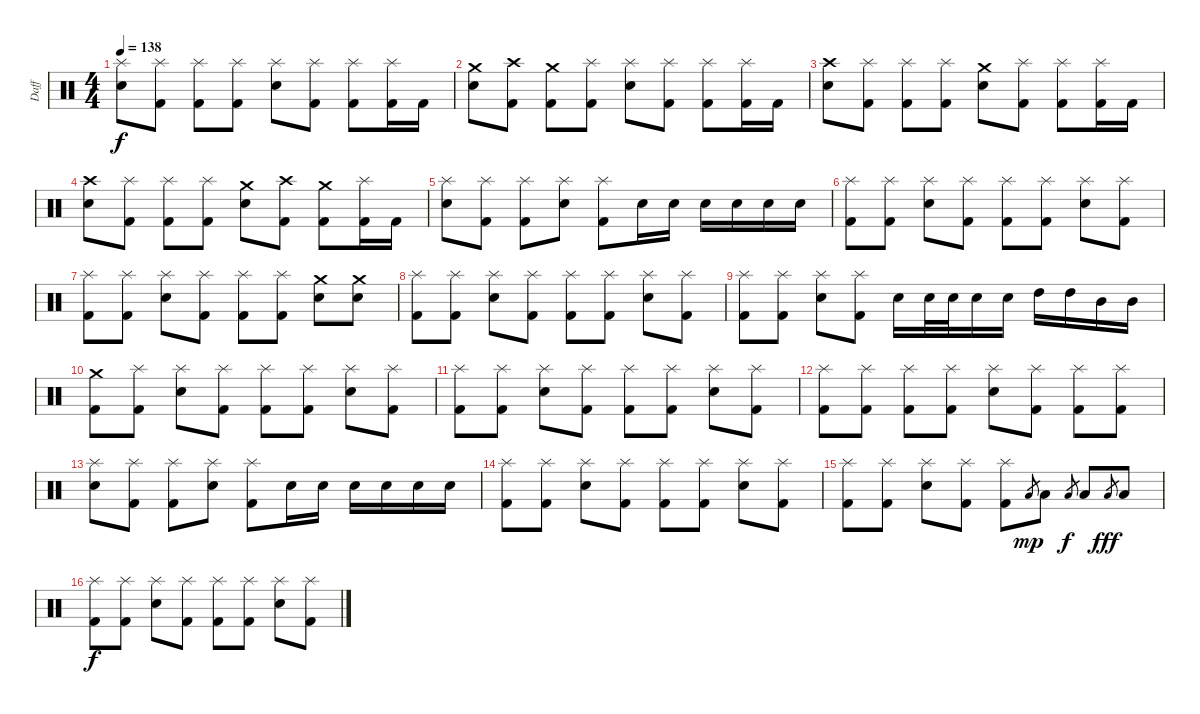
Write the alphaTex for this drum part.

\track ("Daff" "Daff") {instrument percussion}
\staff {score}
\articulation defaults
\ts (4 4)
\tempo 138
\clef neutral
\ks c
("Splash (hit)" "Electric Snare (hit)").8{dy f} ("Splash (hit)" "Kick (hit) 2").8 ("Splash (hit)" "Kick (hit) 2").8 ("Splash (hit)" "Kick (hit) 2").8 ("Splash (hit)" "Electric Snare (hit)").8 ("Splash (hit)" "Kick (hit) 2").8 ("Splash (hit)" "Kick (hit) 2").8 ("Splash (hit)" "Kick (hit) 2").16 "Kick (hit) 2".16 |
("Crash medium (hit)" "Electric Snare (hit)").8 ("Crash high (hit)" "Kick (hit) 2").8 ("Crash medium (hit)" "Kick (hit) 2").8 ("Splash (hit)" "Kick (hit) 2").8 ("Splash (hit)" "Electric Snare (hit)").8 ("Splash (hit)" "Kick (hit) 2").8 ("Splash (hit)" "Kick (hit) 2").8 ("Splash (hit)" "Kick (hit) 2").16 "Kick (hit) 2".16 |
("Crash high (hit)" "Electric Snare (hit)").8 ("Splash (hit)" "Kick (hit) 2").8 ("Splash (hit)" "Kick (hit) 2").8 ("Splash (hit)" "Kick (hit) 2").8 ("Crash medium (hit)" "Electric Snare (hit)").8 ("Splash (hit)" "Kick (hit) 2").8 ("Splash (hit)" "Kick (hit) 2").8 ("Splash (hit)" "Kick (hit) 2").16 "Kick (hit) 2".16 |
("Crash high (hit)" "Electric Snare (hit)").8 ("Splash (hit)" "Kick (hit) 2").8 ("Splash (hit)" "Kick (hit) 2").8 ("Splash (hit)" "Kick (hit) 2").8 ("Crash medium (hit)" "Electric Snare (hit)").8 ("Crash high (hit)" "Kick (hit) 2").8 ("Crash medium (hit)" "Kick (hit) 2").8 ("Splash (hit)" "Kick (hit) 2").16 "Kick (hit) 2".16 |
("Splash (hit)" "Electric Snare (hit)").8 ("Splash (hit)" "Kick (hit) 2").8 ("Splash (hit)" "Kick (hit) 2").8 ("Splash (hit)" "Electric Snare (hit)").8 ("Splash (hit)" "Kick (hit) 2").8 "Electric Snare (hit)".16 "Electric Snare (hit)".16 "Electric Snare (hit)".16 "Electric Snare (hit)".16 "Electric Snare (hit)".16 "Electric Snare (hit)".16 |
("Splash (hit)" "Kick (hit) 2").8 ("Splash (hit)" "Kick (hit) 2").8 ("Splash (hit)" "Electric Snare (hit)").8 ("Splash (hit)" "Kick (hit) 2").8 ("Splash (hit)" "Kick (hit) 2").8 ("Splash (hit)" "Kick (hit) 2").8 ("Splash (hit)" "Electric Snare (hit)").8 ("Splash (hit)" "Kick (hit) 2").8 |
("Splash (hit)" "Kick (hit) 2").8 ("Splash (hit)" "Kick (hit) 2").8 ("Splash (hit)" "Electric Snare (hit)").8 ("Splash (hit)" "Kick (hit) 2").8 ("Splash (hit)" "Kick (hit) 2").8 ("Splash (hit)" "Kick (hit) 2").8 ("Crash medium (hit)" "Electric Snare (hit)").8 ("Crash medium (hit)" "Electric Snare (hit)").8 |
("Splash (hit)" "Kick (hit) 2").8 ("Splash (hit)" "Kick (hit) 2").8 ("Splash (hit)" "Electric Snare (hit)").8 ("Splash (hit)" "Kick (hit) 2").8 ("Splash (hit)" "Kick (hit) 2").8 ("Splash (hit)" "Kick (hit) 2").8 ("Splash (hit)" "Electric Snare (hit)").8 ("Splash (hit)" "Kick (hit) 2").8 |
("Splash (hit)" "Kick (hit) 2").8 ("Splash (hit)" "Kick (hit) 2").8 ("Splash (hit)" "Electric Snare (hit)").8 ("Splash (hit)" "Kick (hit) 2").8 "Electric Snare (hit)".16 "Electric Snare (hit)".32 "Electric Snare (hit)".32 "Electric Snare (hit)".16 "Electric Snare (hit)".16 "High Tom (hit)".16 "High Tom (hit)".16 "Mid Tom (hit)".16 "Mid Tom (hit)".16 |
("Crash medium (hit)" "Kick (hit) 2").8 ("Splash (hit)" "Kick (hit) 2").8 ("Splash (hit)" "Electric Snare (hit)").8 ("Splash (hit)" "Kick (hit) 2").8 ("Splash (hit)" "Kick (hit) 2").8 ("Splash (hit)" "Kick (hit) 2").8 ("Splash (hit)" "Electric Snare (hit)").8 ("Splash (hit)" "Kick (hit) 2").8 |
("Splash (hit)" "Kick (hit) 2").8 ("Splash (hit)" "Kick (hit) 2").8 ("Splash (hit)" "Electric Snare (hit)").8 ("Splash (hit)" "Kick (hit) 2").8 ("Splash (hit)" "Kick (hit) 2").8 ("Splash (hit)" "Kick (hit) 2").8 ("Splash (hit)" "Electric Snare (hit)").8 ("Splash (hit)" "Kick (hit) 2").8 |
("Splash (hit)" "Kick (hit) 2").8 ("Splash (hit)" "Kick (hit) 2").8 ("Splash (hit)" "Kick (hit) 2").8 ("Splash (hit)" "Kick (hit) 2").8 ("Splash (hit)" "Electric Snare (hit)").8 ("Splash (hit)" "Kick (hit) 2").8 ("Splash (hit)" "Kick (hit) 2").8 ("Splash (hit)" "Kick (hit) 2").8 |
("Splash (hit)" "Electric Snare (hit)").8 ("Splash (hit)" "Kick (hit) 2").8 ("Splash (hit)" "Kick (hit) 2").8 ("Splash (hit)" "Electric Snare (hit)").8 ("Splash (hit)" "Kick (hit) 2").8 "Electric Snare (hit)".16 "Electric Snare (hit)".16 "Electric Snare (hit)".16 "Electric Snare (hit)".16 "Electric Snare (hit)".16 "Electric Snare (hit)".16 |
("Splash (hit)" "Kick (hit) 2").8 ("Splash (hit)" "Kick (hit) 2").8 ("Splash (hit)" "Electric Snare (hit)").8 ("Splash (hit)" "Kick (hit) 2").8 ("Splash (hit)" "Kick (hit) 2").8 ("Splash (hit)" "Kick (hit) 2").8 ("Splash (hit)" "Electric Snare (hit)").8 ("Splash (hit)" "Kick (hit) 2").8 |
("Splash (hit)" "Kick (hit) 2").8 ("Splash (hit)" "Kick (hit) 2").8 ("Splash (hit)" "Electric Snare (hit)").8 ("Splash (hit)" "Kick (hit) 2").8 ("Splash (hit)" "Kick (hit) 2").8 "Low Tom (hit)".8{gr dy mp} "Low Tom (hit)".8 "Low Tom (hit)".8{gr dy f} "Low Tom (hit)".8 "Low Tom (hit)".8{gr dy fff} "Low Tom (hit)".8 |
("Splash (hit)" "Kick (hit) 2").8{dy f} ("Splash (hit)" "Kick (hit) 2").8 ("Splash (hit)" "Electric Snare (hit)").8 ("Splash (hit)" "Kick (hit) 2").8 ("Splash (hit)" "Kick (hit) 2").8 ("Splash (hit)" "Kick (hit) 2").8 ("Splash (hit)" "Electric Snare (hit)").8 ("Splash (hit)" "Kick (hit) 2").8
